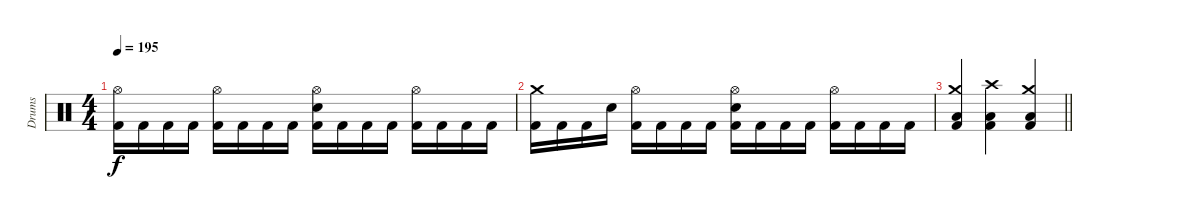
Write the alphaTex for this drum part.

\track ("Drums" "Drums") {instrument percussion}
\staff {score}
\articulation defaults
\ts (4 4)
\tempo 195
\clef neutral
\ks c
("Hi-Hat (open)" "Kick (hit) 2").16{dy f} "Kick (hit) 2".16 "Kick (hit) 2".16 "Kick (hit) 2".16 ("Hi-Hat (open)" "Kick (hit) 2").16 "Kick (hit) 2".16 "Kick (hit) 2".16 "Kick (hit) 2".16 ("Hi-Hat (open)" "Snare (hit) 2" "Kick (hit) 2").16 "Kick (hit) 2".16 "Kick (hit) 2".16 "Kick (hit) 2".16 ("Hi-Hat (open)" "Kick (hit) 2").16 "Kick (hit) 2".16 "Kick (hit) 2".16 "Kick (hit) 2".16 |
("Crash medium (hit)" "Kick (hit) 2").16 "Kick (hit) 2".16 "Kick (hit) 2".16 "Snare (hit)".16 ("Hi-Hat (open)" "Kick (hit) 2").16 "Kick (hit) 2".16 "Kick (hit) 2".16 "Kick (hit) 2".16 ("Hi-Hat (open)" "Snare (hit) 2" "Kick (hit) 2").16 "Kick (hit) 2".16 "Kick (hit) 2".16 "Kick (hit) 2".16 ("Hi-Hat (open)" "Kick (hit) 2").16 "Kick (hit) 2".16 "Kick (hit) 2".16 "Kick (hit) 2".16 |
\barLineRight lightlight
("Crash medium (hit)" "Low Floor Tom (hit)" "Kick (hit) 2").4 ("Crash high (hit)" "Low Floor Tom (hit)" "Kick (hit) 2").4 ("Crash medium (hit)" "Low Floor Tom (hit)" "Kick (hit) 2").4
